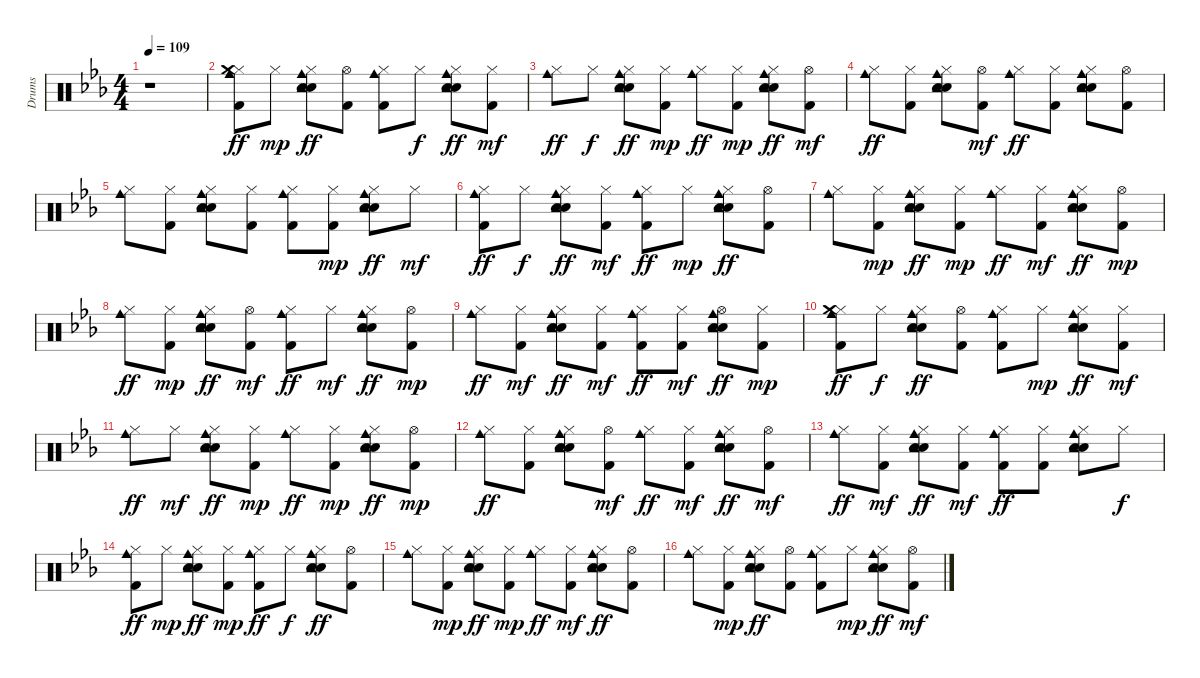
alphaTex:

\track ("Drums" "Drums") {instrument percussion}
\staff {score}
\articulation defaults
\ts (4 4)
\tempo 109
\clef neutral
\ks eb
r.1{dy f} |
("Kick (hit) 2" "Hi-Hat (closed)" "Cowbell medium (hit)" "Crash medium (hit)").8{dy ff} "Hi-Hat (closed)".8{dy mp} ("Hand Clap (hit)" "Electric Snare (hit)" "Hi-Hat (closed)" "Tambourine (hit)" "Cowbell medium (hit)").8{dy ff} ("Kick (hit) 2" "Hi-Hat (open)").8 ("Kick (hit) 2" "Hi-Hat (closed)" "Cowbell medium (hit)").8 "Hi-Hat (closed)".8{dy f} ("Hand Clap (hit)" "Electric Snare (hit)" "Hi-Hat (closed)" "Tambourine (hit)" "Cowbell medium (hit)").8{dy ff} ("Kick (hit) 2" "Hi-Hat (closed)").8{dy mf} |
("Hi-Hat (closed)" "Cowbell medium (hit)").8{dy ff} "Hi-Hat (closed)".8{dy f} ("Hand Clap (hit)" "Electric Snare (hit)" "Hi-Hat (closed)" "Tambourine (hit)" "Cowbell medium (hit)").8{dy ff} ("Kick (hit) 2" "Hi-Hat (closed)").8{dy mp} ("Hi-Hat (closed)" "Cowbell medium (hit)").8{dy ff} ("Kick (hit) 2" "Hi-Hat (closed)").8{dy mp} ("Hand Clap (hit)" "Electric Snare (hit)" "Hi-Hat (closed)" "Tambourine (hit)" "Cowbell medium (hit)").8{dy ff} ("Kick (hit) 2" "Hi-Hat (open)").8{dy mf} |
("Hi-Hat (closed)" "Cowbell medium (hit)").8{dy ff} ("Kick (hit) 2" "Hi-Hat (closed)").8 ("Hand Clap (hit)" "Electric Snare (hit)" "Hi-Hat (closed)" "Tambourine (hit)" "Cowbell medium (hit)").8 ("Kick (hit) 2" "Hi-Hat (open)").8{dy mf} ("Hi-Hat (closed)" "Cowbell medium (hit)").8{dy ff} ("Kick (hit) 2" "Hi-Hat (closed)").8 ("Hand Clap (hit)" "Electric Snare (hit)" "Hi-Hat (closed)" "Tambourine (hit)" "Cowbell medium (hit)").8 ("Kick (hit) 2" "Hi-Hat (open)").8 |
("Hi-Hat (closed)" "Cowbell medium (hit)").8 ("Kick (hit) 2" "Hi-Hat (closed)").8 ("Hand Clap (hit)" "Electric Snare (hit)" "Hi-Hat (closed)" "Tambourine (hit)" "Cowbell medium (hit)").8 ("Kick (hit) 2" "Hi-Hat (closed)").8 ("Kick (hit) 2" "Hi-Hat (closed)" "Cowbell medium (hit)").8 ("Kick (hit) 2" "Hi-Hat (closed)").8{dy mp} ("Hand Clap (hit)" "Electric Snare (hit)" "Hi-Hat (closed)" "Tambourine (hit)" "Cowbell medium (hit)").8{dy ff} "Hi-Hat (closed)".8{dy mf} |
("Kick (hit) 2" "Hi-Hat (closed)" "Cowbell medium (hit)").8{dy ff} "Hi-Hat (closed)".8{dy f} ("Hand Clap (hit)" "Electric Snare (hit)" "Hi-Hat (closed)" "Tambourine (hit)" "Cowbell medium (hit)").8{dy ff} ("Kick (hit) 2" "Hi-Hat (closed)").8{dy mf} ("Kick (hit) 2" "Hi-Hat (closed)" "Cowbell medium (hit)").8{dy ff} "Hi-Hat (closed)".8{dy mp} ("Hand Clap (hit)" "Electric Snare (hit)" "Hi-Hat (closed)" "Tambourine (hit)" "Cowbell medium (hit)").8{dy ff} ("Kick (hit) 2" "Hi-Hat (open)").8 |
("Hi-Hat (closed)" "Cowbell medium (hit)").8 ("Kick (hit) 2" "Hi-Hat (closed)").8{dy mp} ("Hand Clap (hit)" "Electric Snare (hit)" "Hi-Hat (closed)" "Tambourine (hit)" "Cowbell medium (hit)").8{dy ff} ("Kick (hit) 2" "Hi-Hat (closed)").8{dy mp} ("Hi-Hat (closed)" "Cowbell medium (hit)").8{dy ff} ("Kick (hit) 2" "Hi-Hat (closed)").8{dy mf} ("Hand Clap (hit)" "Electric Snare (hit)" "Hi-Hat (closed)" "Tambourine (hit)" "Cowbell medium (hit)").8{dy ff} ("Kick (hit) 2" "Hi-Hat (open)").8{dy mp} |
("Hi-Hat (closed)" "Cowbell medium (hit)").8{dy ff} ("Kick (hit) 2" "Hi-Hat (closed)").8{dy mp} ("Hand Clap (hit)" "Electric Snare (hit)" "Hi-Hat (closed)" "Tambourine (hit)" "Cowbell medium (hit)").8{dy ff} ("Kick (hit) 2" "Hi-Hat (open)").8{dy mf} ("Kick (hit) 2" "Hi-Hat (closed)" "Cowbell medium (hit)").8{dy ff} "Hi-Hat (closed)".8{dy mf} ("Hand Clap (hit)" "Electric Snare (hit)" "Hi-Hat (closed)" "Tambourine (hit)" "Cowbell medium (hit)").8{dy ff} ("Kick (hit) 2" "Hi-Hat (open)").8{dy mp} |
("Hi-Hat (closed)" "Cowbell medium (hit)").8{dy ff} ("Kick (hit) 2" "Hi-Hat (closed)").8{dy mf} ("Hand Clap (hit)" "Electric Snare (hit)" "Hi-Hat (closed)" "Tambourine (hit)" "Cowbell medium (hit)").8{dy ff} ("Kick (hit) 2" "Hi-Hat (closed)").8{dy mf} ("Kick (hit) 2" "Hi-Hat (closed)" "Cowbell medium (hit)").8{dy ff} ("Kick (hit) 2" "Hi-Hat (closed)").8{dy mf} ("Hand Clap (hit)" "Electric Snare (hit)" "Hi-Hat (open)" "Tambourine (hit)" "Cowbell medium (hit)").8{dy ff} ("Kick (hit) 2" "Hi-Hat (closed)").8{dy mp} |
("Kick (hit) 2" "Hi-Hat (closed)" "Cowbell medium (hit)" "Crash medium (hit)").8{dy ff} "Hi-Hat (closed)".8{dy f} ("Hand Clap (hit)" "Electric Snare (hit)" "Hi-Hat (closed)" "Tambourine (hit)" "Cowbell medium (hit)").8{dy ff} ("Kick (hit) 2" "Hi-Hat (open)").8 ("Kick (hit) 2" "Hi-Hat (closed)" "Cowbell medium (hit)").8 "Hi-Hat (closed)".8{dy mp} ("Hand Clap (hit)" "Electric Snare (hit)" "Hi-Hat (closed)" "Tambourine (hit)" "Cowbell medium (hit)").8{dy ff} ("Kick (hit) 2" "Hi-Hat (closed)").8{dy mf} |
("Hi-Hat (closed)" "Cowbell medium (hit)").8{dy ff} "Hi-Hat (closed)".8{dy mf} ("Hand Clap (hit)" "Electric Snare (hit)" "Hi-Hat (closed)" "Tambourine (hit)" "Cowbell medium (hit)").8{dy ff} ("Kick (hit) 2" "Hi-Hat (closed)").8{dy mp} ("Hi-Hat (closed)" "Cowbell medium (hit)").8{dy ff} ("Kick (hit) 2" "Hi-Hat (closed)").8{dy mp} ("Hand Clap (hit)" "Electric Snare (hit)" "Hi-Hat (closed)" "Tambourine (hit)" "Cowbell medium (hit)").8{dy ff} ("Kick (hit) 2" "Hi-Hat (open)").8{dy mp} |
("Hi-Hat (closed)" "Cowbell medium (hit)").8{dy ff} ("Kick (hit) 2" "Hi-Hat (closed)").8 ("Hand Clap (hit)" "Electric Snare (hit)" "Hi-Hat (closed)" "Tambourine (hit)" "Cowbell medium (hit)").8 ("Kick (hit) 2" "Hi-Hat (open)").8{dy mf} ("Hi-Hat (closed)" "Cowbell medium (hit)").8{dy ff} ("Kick (hit) 2" "Hi-Hat (closed)").8{dy mf} ("Hand Clap (hit)" "Electric Snare (hit)" "Hi-Hat (closed)" "Tambourine (hit)" "Cowbell medium (hit)").8{dy ff} ("Kick (hit) 2" "Hi-Hat (open)").8{dy mf} |
("Hi-Hat (closed)" "Cowbell medium (hit)").8{dy ff} ("Kick (hit) 2" "Hi-Hat (closed)").8{dy mf} ("Hand Clap (hit)" "Electric Snare (hit)" "Hi-Hat (closed)" "Tambourine (hit)" "Cowbell medium (hit)").8{dy ff} ("Kick (hit) 2" "Hi-Hat (closed)").8{dy mf} ("Kick (hit) 2" "Hi-Hat (closed)" "Cowbell medium (hit)").8{dy ff} ("Kick (hit) 2" "Hi-Hat (closed)").8 ("Hand Clap (hit)" "Electric Snare (hit)" "Hi-Hat (closed)" "Tambourine (hit)" "Cowbell medium (hit)").8 "Hi-Hat (closed)".8{dy f} |
("Kick (hit) 2" "Hi-Hat (closed)" "Cowbell medium (hit)").8{dy ff} "Hi-Hat (closed)".8{dy mp} ("Hand Clap (hit)" "Electric Snare (hit)" "Hi-Hat (closed)" "Tambourine (hit)" "Cowbell medium (hit)").8{dy ff} ("Kick (hit) 2" "Hi-Hat (closed)").8{dy mp} ("Kick (hit) 2" "Hi-Hat (closed)" "Cowbell medium (hit)").8{dy ff} "Hi-Hat (closed)".8{dy f} ("Hand Clap (hit)" "Electric Snare (hit)" "Hi-Hat (closed)" "Tambourine (hit)" "Cowbell medium (hit)").8{dy ff} ("Kick (hit) 2" "Hi-Hat (open)").8 |
("Hi-Hat (closed)" "Cowbell medium (hit)").8 ("Kick (hit) 2" "Hi-Hat (closed)").8{dy mp} ("Hand Clap (hit)" "Electric Snare (hit)" "Hi-Hat (closed)" "Tambourine (hit)" "Cowbell medium (hit)").8{dy ff} ("Kick (hit) 2" "Hi-Hat (closed)").8{dy mp} ("Hi-Hat (closed)" "Cowbell medium (hit)").8{dy ff} ("Kick (hit) 2" "Hi-Hat (closed)").8{dy mf} ("Hand Clap (hit)" "Electric Snare (hit)" "Hi-Hat (closed)" "Tambourine (hit)" "Cowbell medium (hit)").8{dy ff} ("Kick (hit) 2" "Hi-Hat (open)").8 |
("Hi-Hat (closed)" "Cowbell medium (hit)").8 ("Kick (hit) 2" "Hi-Hat (closed)").8{dy mp} ("Hand Clap (hit)" "Electric Snare (hit)" "Hi-Hat (closed)" "Tambourine (hit)" "Cowbell medium (hit)").8{dy ff} ("Kick (hit) 2" "Hi-Hat (open)").8 ("Kick (hit) 2" "Hi-Hat (closed)" "Cowbell medium (hit)").8 "Hi-Hat (closed)".8{dy mp} ("Hand Clap (hit)" "Electric Snare (hit)" "Hi-Hat (closed)" "Tambourine (hit)" "Cowbell medium (hit)").8{dy ff} ("Kick (hit) 2" "Hi-Hat (open)").8{dy mf}
